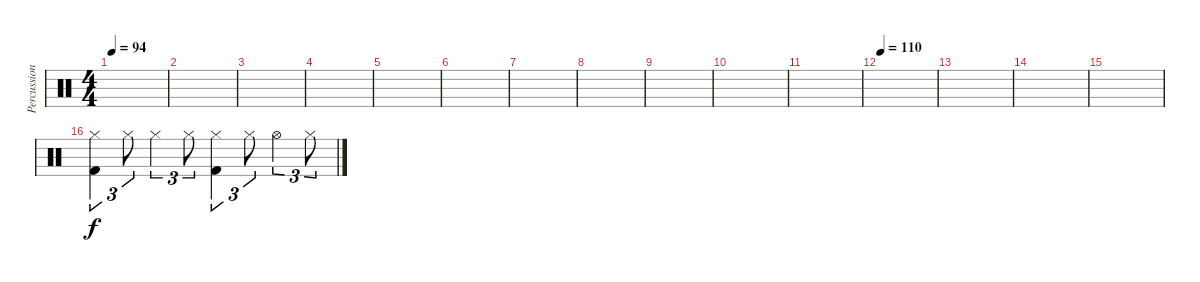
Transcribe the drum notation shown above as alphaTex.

\track ("Percussion" "Percussion") {instrument percussion}
\staff {score}
\articulation defaults
\ts (4 4)
\tempo 94
\clef neutral
\ks c
|
|
|
|
|
|
|
|
|
|
|
\tempo 110
|
|
|
|
("Hi-Hat (closed)" "Kick (hit) 2").4{tu (3 2)} "Hi-Hat (closed)".8{tu (3 2)} "Hi-Hat (closed)".4{tu (3 2)} "Hi-Hat (closed)".8{tu (3 2)} ("Hi-Hat (closed)" "Kick (hit) 2").4{tu (3 2)} "Hi-Hat (closed)".8{tu (3 2)} "Hi-Hat (open)".4{tu (3 2)} "Hi-Hat (closed)".8{tu (3 2)}
